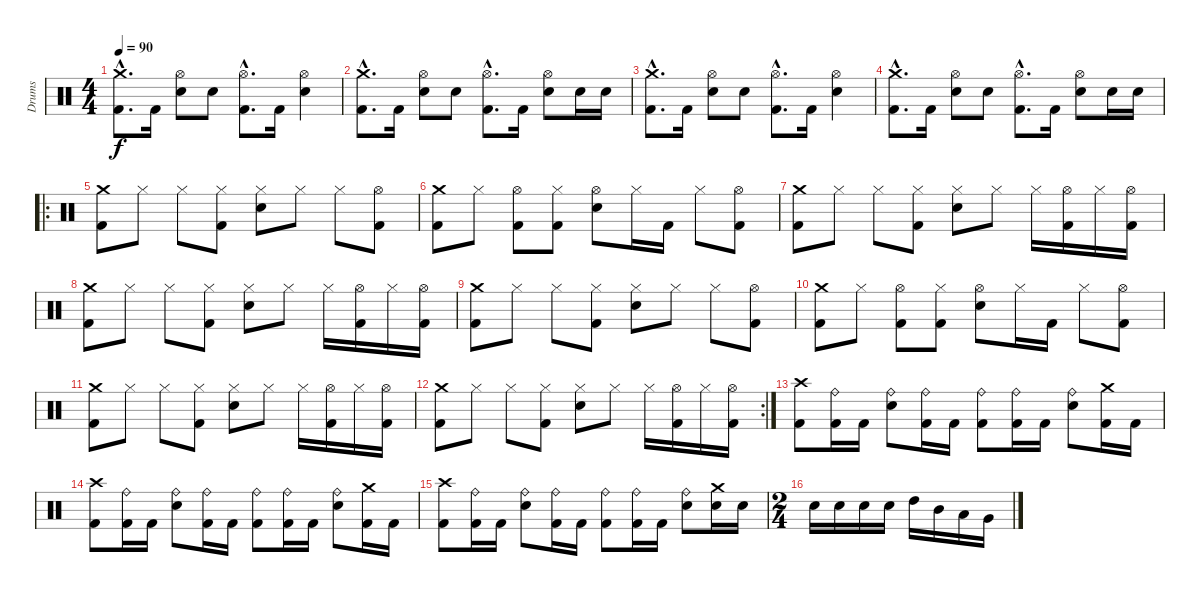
\track ("Drums" "Drums") {instrument percussion}
\staff {score}
\articulation defaults
\ts (4 4)
\tempo 90
\clef neutral
\ks c
("Crash medium (hit)"{hac} "Kick (hit) 2"{hac}).8{d dy f} "Kick (hit) 2".16 ("Hi-Hat (open)" "Snare (hit) 2").8 "Snare (hit) 2".8 ("Hi-Hat (open)"{hac} "Kick (hit) 2"{hac}).8{d} "Kick (hit) 2".16 ("Hi-Hat (open)" "Snare (hit) 2").4 |
("Crash medium (hit)"{hac} "Kick (hit) 2"{hac}).8{d} "Kick (hit) 2".16 ("Hi-Hat (open)" "Snare (hit) 2").8 "Snare (hit) 2".8 ("Hi-Hat (open)"{hac} "Kick (hit) 2"{hac}).8{d} "Kick (hit) 2".16 ("Hi-Hat (open)" "Snare (hit) 2").8 "Snare (hit) 2".16 "Snare (hit) 2".16 |
("Crash medium (hit)"{hac} "Kick (hit) 2"{hac}).8{d} "Kick (hit) 2".16 ("Hi-Hat (open)" "Snare (hit) 2").8 "Snare (hit) 2".8 ("Hi-Hat (open)"{hac} "Kick (hit) 2"{hac}).8{d} "Kick (hit) 2".16 ("Hi-Hat (open)" "Snare (hit) 2").4 |
("Crash medium (hit)"{hac} "Kick (hit) 2"{hac}).8{d} "Kick (hit) 2".16 ("Hi-Hat (open)" "Snare (hit) 2").8 "Snare (hit) 2".8 ("Hi-Hat (open)"{hac} "Kick (hit) 2"{hac}).8{d} "Kick (hit) 2".16 ("Hi-Hat (open)" "Snare (hit) 2").8 "Snare (hit) 2".16 "Snare (hit) 2".16 |
\ro
("Crash medium (hit)" "Kick (hit) 2").8 "Hi-Hat (closed)".8 "Hi-Hat (closed)".8 ("Hi-Hat (closed)" "Kick (hit) 2").8 ("Hi-Hat (closed)" "Snare (hit) 2").8 "Hi-Hat (closed)".8 "Hi-Hat (closed)".8 ("Hi-Hat (open)" "Kick (hit) 2").8 |
("Crash medium (hit)" "Kick (hit) 2").8 "Hi-Hat (closed)".8 ("Hi-Hat (open)" "Kick (hit) 2").8 ("Hi-Hat (closed)" "Kick (hit) 2").8 ("Hi-Hat (open)" "Snare (hit) 2").8 "Hi-Hat (closed)".16 "Kick (hit) 2".16 "Hi-Hat (closed)".8 ("Hi-Hat (open)" "Kick (hit) 2").8 |
("Crash medium (hit)" "Kick (hit) 2").8 "Hi-Hat (closed)".8 "Hi-Hat (closed)".8 ("Hi-Hat (closed)" "Kick (hit) 2").8 ("Hi-Hat (closed)" "Snare (hit) 2").8 "Hi-Hat (closed)".8 "Hi-Hat (closed)".16 ("Hi-Hat (open)" "Kick (hit) 2").16 "Hi-Hat (closed)".16 ("Hi-Hat (open)" "Kick (hit) 2").16 |
("Crash medium (hit)" "Kick (hit) 2").8 "Hi-Hat (closed)".8 "Hi-Hat (closed)".8 ("Hi-Hat (closed)" "Kick (hit) 2").8 ("Hi-Hat (closed)" "Snare (hit) 2").8 "Hi-Hat (closed)".8 "Hi-Hat (closed)".16 ("Hi-Hat (open)" "Kick (hit) 2").16 "Hi-Hat (closed)".16 ("Hi-Hat (open)" "Kick (hit) 2").16 |
("Crash medium (hit)" "Kick (hit) 2").8 "Hi-Hat (closed)".8 "Hi-Hat (closed)".8 ("Hi-Hat (closed)" "Kick (hit) 2").8 ("Hi-Hat (closed)" "Snare (hit) 2").8 "Hi-Hat (closed)".8 "Hi-Hat (closed)".8 ("Hi-Hat (open)" "Kick (hit) 2").8 |
("Crash medium (hit)" "Kick (hit) 2").8 "Hi-Hat (closed)".8 ("Hi-Hat (open)" "Kick (hit) 2").8 ("Hi-Hat (closed)" "Kick (hit) 2").8 ("Hi-Hat (open)" "Snare (hit) 2").8 "Hi-Hat (closed)".16 "Kick (hit) 2".16 "Hi-Hat (closed)".8 ("Hi-Hat (open)" "Kick (hit) 2").8 |
("Crash medium (hit)" "Kick (hit) 2").8 "Hi-Hat (closed)".8 "Hi-Hat (closed)".8 ("Hi-Hat (closed)" "Kick (hit) 2").8 ("Hi-Hat (closed)" "Snare (hit) 2").8 "Hi-Hat (closed)".8 "Hi-Hat (closed)".16 ("Hi-Hat (open)" "Kick (hit) 2").16 "Hi-Hat (closed)".16 ("Hi-Hat (open)" "Kick (hit) 2").16 |
\rc 2
("Crash medium (hit)" "Kick (hit) 2").8 "Hi-Hat (closed)".8 "Hi-Hat (closed)".8 ("Hi-Hat (closed)" "Kick (hit) 2").8 ("Hi-Hat (closed)" "Snare (hit) 2").8 "Hi-Hat (closed)".8 "Hi-Hat (closed)".16 ("Hi-Hat (open)" "Kick (hit) 2").16 "Hi-Hat (closed)".16 ("Hi-Hat (open)" "Kick (hit) 2").16 |
("Crash high (hit)" "Kick (hit) 2").8 ("Ride (bell)" "Kick (hit) 2").16 "Kick (hit) 2".16 ("Ride (bell)" "Snare (hit) 2").8 ("Ride (bell)" "Kick (hit) 2").16 "Kick (hit) 2".16 ("Ride (bell)" "Kick (hit) 2").8 ("Ride (bell)" "Kick (hit) 2").16 "Kick (hit) 2".16 ("Ride (bell)" "Snare (hit) 2").8 ("Crash medium (hit)" "Kick (hit) 2").16 "Kick (hit) 2".16 |
("Crash high (hit)" "Kick (hit) 2").8 ("Ride (bell)" "Kick (hit) 2").16 "Kick (hit) 2".16 ("Ride (bell)" "Snare (hit) 2").8 ("Ride (bell)" "Kick (hit) 2").16 "Kick (hit) 2".16 ("Ride (bell)" "Kick (hit) 2").8 ("Ride (bell)" "Kick (hit) 2").16 "Kick (hit) 2".16 ("Ride (bell)" "Snare (hit) 2").8 ("Crash medium (hit)" "Kick (hit) 2").16 "Kick (hit) 2".16 |
("Crash high (hit)" "Kick (hit) 2").8 ("Ride (bell)" "Kick (hit) 2").16 "Kick (hit) 2".16 ("Ride (bell)" "Snare (hit) 2").8 ("Ride (bell)" "Kick (hit) 2").16 "Kick (hit) 2".16 ("Ride (bell)" "Kick (hit) 2").8 ("Ride (bell)" "Kick (hit) 2").16 "Kick (hit) 2".16 ("Ride (bell)" "Snare (hit) 2").8 ("Crash medium (hit)" "Snare (hit) 2").16 "Snare (hit) 2".16 |
\ts (2 4)
"Snare (hit) 2".16 "Snare (hit) 2".16 "Snare (hit) 2".16 "Snare (hit) 2".16 "High Tom (hit)".16 "Mid Tom (hit)".16 "Low Tom (hit)".16 "Very Low Tom (hit)".16
